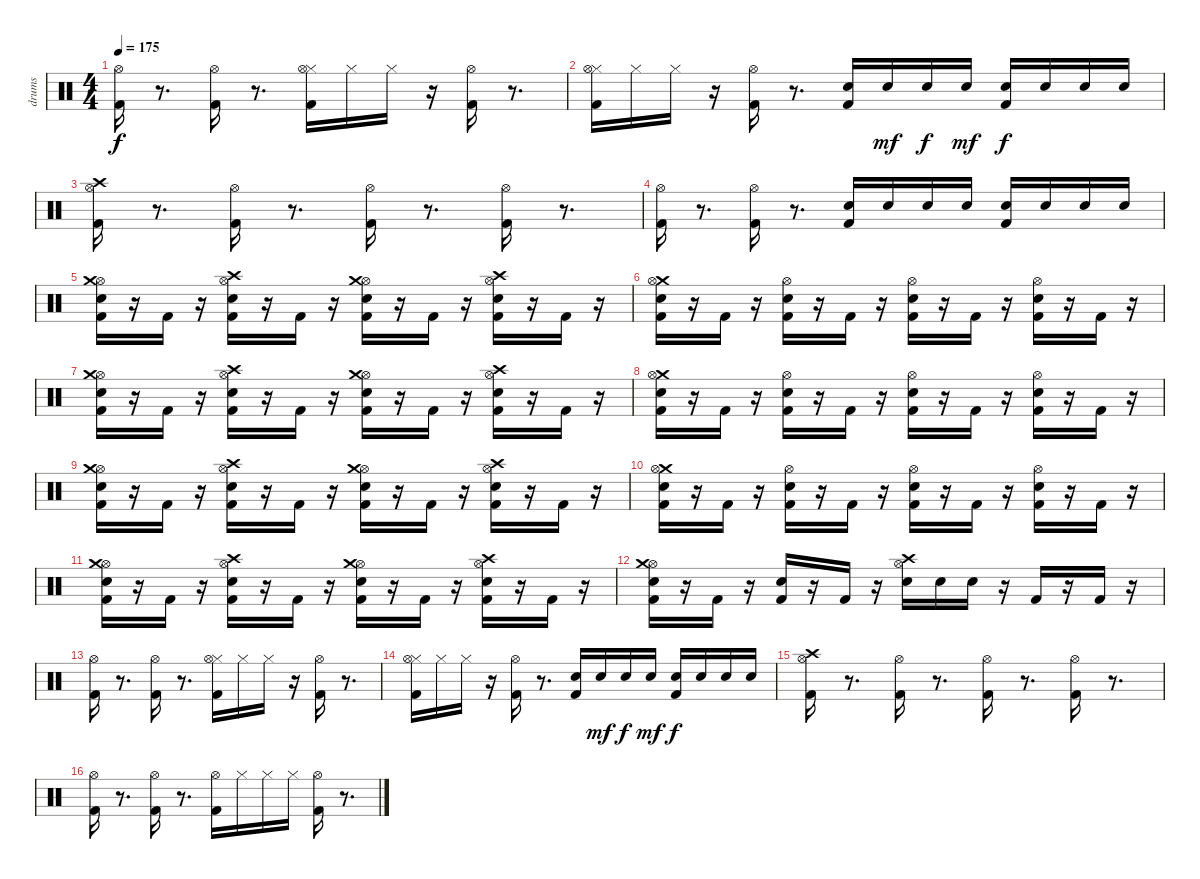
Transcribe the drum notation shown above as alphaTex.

\track ("drums" "drums") {instrument percussion}
\staff {score}
\articulation defaults
\ts (4 4)
\tempo 175
\clef neutral
\ks c
("Hi-Hat (open)" "Kick (hit) 2").16{dy f} r.8{d} ("Hi-Hat (open)" "Kick (hit) 2").16 r.8{d} ("Hi-Hat (closed)" "Hi-Hat (open)" "Kick (hit) 2").16 "Hi-Hat (closed)".16 "Hi-Hat (closed)".16 r.16 ("Hi-Hat (open)" "Kick (hit) 2").16 r.8{d} |
("Hi-Hat (closed)" "Kick (hit) 2" "Hi-Hat (open)").16 "Hi-Hat (closed)".16 "Hi-Hat (closed)".16 r.16 ("Kick (hit) 2" "Hi-Hat (open)").16 r.8{d} ("Kick (hit) 2" "Electric Snare (hit)").16 "Electric Snare (hit)".16{dy mf} "Electric Snare (hit)".16{dy f} "Electric Snare (hit)".16{dy mf} ("Kick (hit) 2" "Electric Snare (hit)").16{dy f} "Electric Snare (hit)".16 "Electric Snare (hit)".16 "Electric Snare (hit)".16 |
("Hi-Hat (open)" "Kick (hit) 2" "Crash high (hit)").16 r.8{d} ("Kick (hit) 2" "Hi-Hat (open)").16 r.8{d} ("Kick (hit) 2" "Hi-Hat (open)").16 r.8{d} ("Kick (hit) 2" "Hi-Hat (open)").16 r.8{d} |
("Kick (hit) 2" "Hi-Hat (open)").16 r.8{d} ("Kick (hit) 2" "Hi-Hat (open)").16 r.8{d} ("Electric Snare (hit)" "Kick (hit) 2").16 "Electric Snare (hit)".16 "Electric Snare (hit)".16 "Electric Snare (hit)".16 ("Electric Snare (hit)" "Kick (hit) 2").16 "Electric Snare (hit)".16 "Electric Snare (hit)".16 "Electric Snare (hit)".16 |
("Hi-Hat (open)" "Electric Snare (hit)" "Kick (hit) 2" "Crash medium (hit)").16 r.16 "Kick (hit) 2".16 r.16 ("Hi-Hat (open)" "Electric Snare (hit)" "Kick (hit) 2" "Crash high (hit)").16 r.16 "Kick (hit) 2".16 r.16 ("Hi-Hat (open)" "Electric Snare (hit)" "Kick (hit) 2" "Crash medium (hit)").16 r.16 "Kick (hit) 2".16 r.16 ("Hi-Hat (open)" "Electric Snare (hit)" "Kick (hit) 2" "Crash high (hit)").16 r.16 "Kick (hit) 2".16 r.16 |
("Crash medium (hit)" "Hi-Hat (open)" "Electric Snare (hit)" "Kick (hit) 2").16 r.16 "Kick (hit) 2".16 r.16 ("Hi-Hat (open)" "Electric Snare (hit)" "Kick (hit) 2").16 r.16 "Kick (hit) 2".16 r.16 ("Hi-Hat (open)" "Electric Snare (hit)" "Kick (hit) 2").16 r.16 "Kick (hit) 2".16 r.16 ("Hi-Hat (open)" "Electric Snare (hit)" "Kick (hit) 2").16 r.16 "Kick (hit) 2".16 r.16 |
("Hi-Hat (open)" "Electric Snare (hit)" "Kick (hit) 2" "Crash medium (hit)").16 r.16 "Kick (hit) 2".16 r.16 ("Hi-Hat (open)" "Electric Snare (hit)" "Kick (hit) 2" "Crash high (hit)").16 r.16 "Kick (hit) 2".16 r.16 ("Hi-Hat (open)" "Electric Snare (hit)" "Kick (hit) 2" "Crash medium (hit)").16 r.16 "Kick (hit) 2".16 r.16 ("Hi-Hat (open)" "Electric Snare (hit)" "Kick (hit) 2" "Crash high (hit)").16 r.16 "Kick (hit) 2".16 r.16 |
("Crash medium (hit)" "Hi-Hat (open)" "Electric Snare (hit)" "Kick (hit) 2").16 r.16 "Kick (hit) 2".16 r.16 ("Hi-Hat (open)" "Electric Snare (hit)" "Kick (hit) 2").16 r.16 "Kick (hit) 2".16 r.16 ("Hi-Hat (open)" "Electric Snare (hit)" "Kick (hit) 2").16 r.16 "Kick (hit) 2".16 r.16 ("Hi-Hat (open)" "Electric Snare (hit)" "Kick (hit) 2").16 r.16 "Kick (hit) 2".16 r.16 |
("Hi-Hat (open)" "Electric Snare (hit)" "Kick (hit) 2" "Crash medium (hit)").16 r.16 "Kick (hit) 2".16 r.16 ("Hi-Hat (open)" "Electric Snare (hit)" "Kick (hit) 2" "Crash high (hit)").16 r.16 "Kick (hit) 2".16 r.16 ("Hi-Hat (open)" "Electric Snare (hit)" "Kick (hit) 2" "Crash medium (hit)").16 r.16 "Kick (hit) 2".16 r.16 ("Hi-Hat (open)" "Electric Snare (hit)" "Kick (hit) 2" "Crash high (hit)").16 r.16 "Kick (hit) 2".16 r.16 |
("Crash medium (hit)" "Hi-Hat (open)" "Electric Snare (hit)" "Kick (hit) 2").16 r.16 "Kick (hit) 2".16 r.16 ("Hi-Hat (open)" "Electric Snare (hit)" "Kick (hit) 2").16 r.16 "Kick (hit) 2".16 r.16 ("Hi-Hat (open)" "Electric Snare (hit)" "Kick (hit) 2").16 r.16 "Kick (hit) 2".16 r.16 ("Hi-Hat (open)" "Electric Snare (hit)" "Kick (hit) 2").16 r.16 "Kick (hit) 2".16 r.16 |
("Hi-Hat (open)" "Electric Snare (hit)" "Kick (hit) 2" "Crash medium (hit)").16 r.16 "Kick (hit) 2".16 r.16 ("Hi-Hat (open)" "Electric Snare (hit)" "Kick (hit) 2" "Crash high (hit)").16 r.16 "Kick (hit) 2".16 r.16 ("Hi-Hat (open)" "Electric Snare (hit)" "Kick (hit) 2" "Crash medium (hit)").16 r.16 "Kick (hit) 2".16 r.16 ("Hi-Hat (open)" "Electric Snare (hit)" "Kick (hit) 2" "Crash high (hit)").16 r.16 "Kick (hit) 2".16 r.16 |
("Hi-Hat (open)" "Crash medium (hit)" "Electric Snare (hit)" "Kick (hit) 2").16 r.16 "Kick (hit) 2".16 r.16 ("Electric Snare (hit)" "Kick (hit) 2").16 r.16 "Kick (hit) 2".16 r.16 ("Crash high (hit)" "Hi-Hat (open)" "Electric Snare (hit)").16 "Electric Snare (hit)".16 "Electric Snare (hit)".16 r.16 "Kick (hit) 2".16 r.16 "Kick (hit) 2".16 r.16 |
("Kick (hit) 2" "Hi-Hat (open)").16 r.8{d} ("Kick (hit) 2" "Hi-Hat (open)").16 r.8{d} ("Hi-Hat (closed)" "Kick (hit) 2" "Hi-Hat (open)").16 "Hi-Hat (closed)".16 "Hi-Hat (closed)".16 r.16 ("Kick (hit) 2" "Hi-Hat (open)").16 r.8{d} |
("Hi-Hat (closed)" "Kick (hit) 2" "Hi-Hat (open)").16 "Hi-Hat (closed)".16 "Hi-Hat (closed)".16 r.16 ("Kick (hit) 2" "Hi-Hat (open)").16 r.8{d} ("Kick (hit) 2" "Electric Snare (hit)").16 "Electric Snare (hit)".16{dy mf} "Electric Snare (hit)".16{dy f} "Electric Snare (hit)".16{dy mf} ("Kick (hit) 2" "Electric Snare (hit)").16{dy f} "Electric Snare (hit)".16 "Electric Snare (hit)".16 "Electric Snare (hit)".16 |
("Hi-Hat (open)" "Kick (hit) 2" "Crash high (hit)").16 r.8{d} ("Kick (hit) 2" "Hi-Hat (open)").16 r.8{d} ("Kick (hit) 2" "Hi-Hat (open)").16 r.8{d} ("Kick (hit) 2" "Hi-Hat (open)").16 r.8{d} |
("Kick (hit) 2" "Hi-Hat (open)").16 r.8{d} ("Kick (hit) 2" "Hi-Hat (open)").16 r.8{d} ("Hi-Hat (open)" "Kick (hit) 2").16 "Hi-Hat (closed)".16 "Hi-Hat (closed)".16 "Hi-Hat (closed)".16 ("Hi-Hat (open)" "Kick (hit) 2").16 r.8{d}
